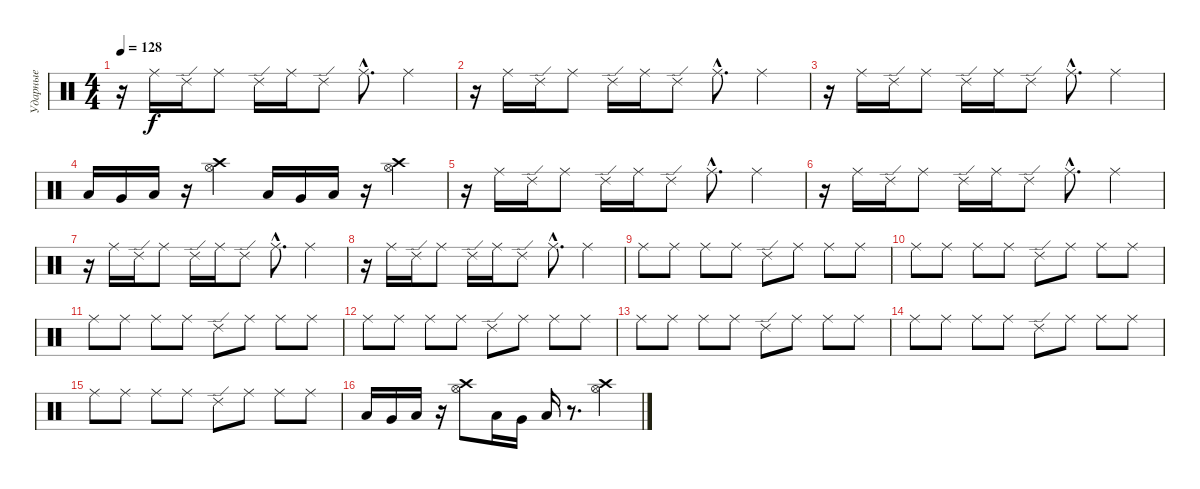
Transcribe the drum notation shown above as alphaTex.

\track ("Ударные" "Ударные") {instrument percussion}
\staff {score}
\articulation defaults
\ts (4 4)
\tempo 128
\clef neutral
\ks c
r.16{dy f} "Ride (middle)".16 "Ride (edge) 2".16 "Ride (middle)".8 "Ride (edge) 2".16 "Ride (middle)".16 "Ride (edge) 2".8 "Ride (middle)"{hac}.8{d} "Ride (middle)".4 |
r.16 "Ride (middle)".16 "Ride (edge) 2".16 "Ride (middle)".8 "Ride (edge) 2".16 "Ride (middle)".16 "Ride (edge) 2".8 "Ride (middle)"{hac}.8{d} "Ride (middle)".4 |
r.16 "Ride (middle)".16 "Ride (edge) 2".16 "Ride (middle)".8 "Ride (edge) 2".16 "Ride (middle)".16 "Ride (edge) 2".8 "Ride (middle)"{hac}.8{d} "Ride (middle)".4 |
"Low Floor Tom (hit)".16 "Very Low Tom (hit)".16 "Low Floor Tom (hit)".16 r.16 ("Hi-Hat (open)" "Crash high (hit)").4 "Low Floor Tom (hit)".16 "Very Low Tom (hit)".16 "Low Floor Tom (hit)".16 r.16 ("Hi-Hat (open)" "Crash high (hit)").4 |
r.16 "Ride (middle)".16 "Ride (edge) 2".16 "Ride (middle)".8 "Ride (edge) 2".16 "Ride (middle)".16 "Ride (edge) 2".8 "Ride (middle)"{hac}.8{d} "Ride (middle)".4 |
r.16 "Ride (middle)".16 "Ride (edge) 2".16 "Ride (middle)".8 "Ride (edge) 2".16 "Ride (middle)".16 "Ride (edge) 2".8 "Ride (middle)"{hac}.8{d} "Ride (middle)".4 |
r.16 "Ride (middle)".16 "Ride (edge) 2".16 "Ride (middle)".8 "Ride (edge) 2".16 "Ride (middle)".16 "Ride (edge) 2".8 "Ride (middle)"{hac}.8{d} "Ride (middle)".4 |
r.16 "Ride (middle)".16 "Ride (edge) 2".16 "Ride (middle)".8 "Ride (edge) 2".16 "Ride (middle)".16 "Ride (edge) 2".8 "Ride (middle)"{hac}.8{d} "Ride (middle)".4 |
"Ride (middle)".8 "Ride (middle)".8 "Ride (middle)".8 "Ride (middle)".8 "Ride (edge) 2".8 "Ride (middle)".8 "Ride (middle)".8 "Ride (middle)".8 |
"Ride (middle)".8 "Ride (middle)".8 "Ride (middle)".8 "Ride (middle)".8 "Ride (edge) 2".8 "Ride (middle)".8 "Ride (middle)".8 "Ride (middle)".8 |
"Ride (middle)".8 "Ride (middle)".8 "Ride (middle)".8 "Ride (middle)".8 "Ride (edge) 2".8 "Ride (middle)".8 "Ride (middle)".8 "Ride (middle)".8 |
"Ride (middle)".8 "Ride (middle)".8 "Ride (middle)".8 "Ride (middle)".8 "Ride (edge) 2".8 "Ride (middle)".8 "Ride (middle)".8 "Ride (middle)".8 |
"Ride (middle)".8 "Ride (middle)".8 "Ride (middle)".8 "Ride (middle)".8 "Ride (edge) 2".8 "Ride (middle)".8 "Ride (middle)".8 "Ride (middle)".8 |
"Ride (middle)".8 "Ride (middle)".8 "Ride (middle)".8 "Ride (middle)".8 "Ride (edge) 2".8 "Ride (middle)".8 "Ride (middle)".8 "Ride (middle)".8 |
"Ride (middle)".8 "Ride (middle)".8 "Ride (middle)".8 "Ride (middle)".8 "Ride (edge) 2".8 "Ride (middle)".8 "Ride (middle)".8 "Ride (middle)".8 |
"Low Floor Tom (hit)".16 "Very Low Tom (hit)".16 "Low Floor Tom (hit)".16 r.16 ("Hi-Hat (open)" "Crash high (hit)").8 "Low Floor Tom (hit)".16 "Very Low Tom (hit)".16 "Low Floor Tom (hit)".16 r.8{d} ("Hi-Hat (open)" "Crash high (hit)").4
